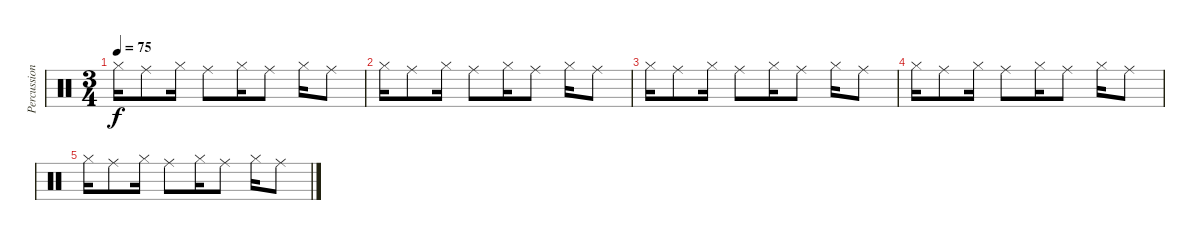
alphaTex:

\track ("Percussions" "Percussion") {instrument percussion}
\staff {score}
\articulation defaults
\ts (3 4)
\tempo 75
\clef neutral
\ks c "Hi-Hat (closed)".16{dy f} "Ride (middle)".8 "Hi-Hat (closed)".16 "Ride (middle)".8 "Hi-Hat (closed)".16 "Ride (middle)".8 "Hi-Hat (closed)".16 "Ride (middle)".8
|
"Hi-Hat (closed)".16 "Ride (middle)".8 "Hi-Hat (closed)".16 "Ride (middle)".8 "Hi-Hat (closed)".16 "Ride (middle)".8 "Hi-Hat (closed)".16 "Ride (middle)".8 |
"Hi-Hat (closed)".16 "Ride (middle)".8 "Hi-Hat (closed)".16 "Ride (middle)".8 "Hi-Hat (closed)".16 "Ride (middle)".8 "Hi-Hat (closed)".16 "Ride (middle)".8 |
"Hi-Hat (closed)".16 "Ride (middle)".8 "Hi-Hat (closed)".16 "Ride (middle)".8 "Hi-Hat (closed)".16 "Ride (middle)".8 "Hi-Hat (closed)".16 "Ride (middle)".8 |
"Hi-Hat (closed)".16 "Ride (middle)".8 "Hi-Hat (closed)".16 "Ride (middle)".8 "Hi-Hat (closed)".16 "Ride (middle)".8 "Hi-Hat (closed)".16 "Ride (middle)".8
